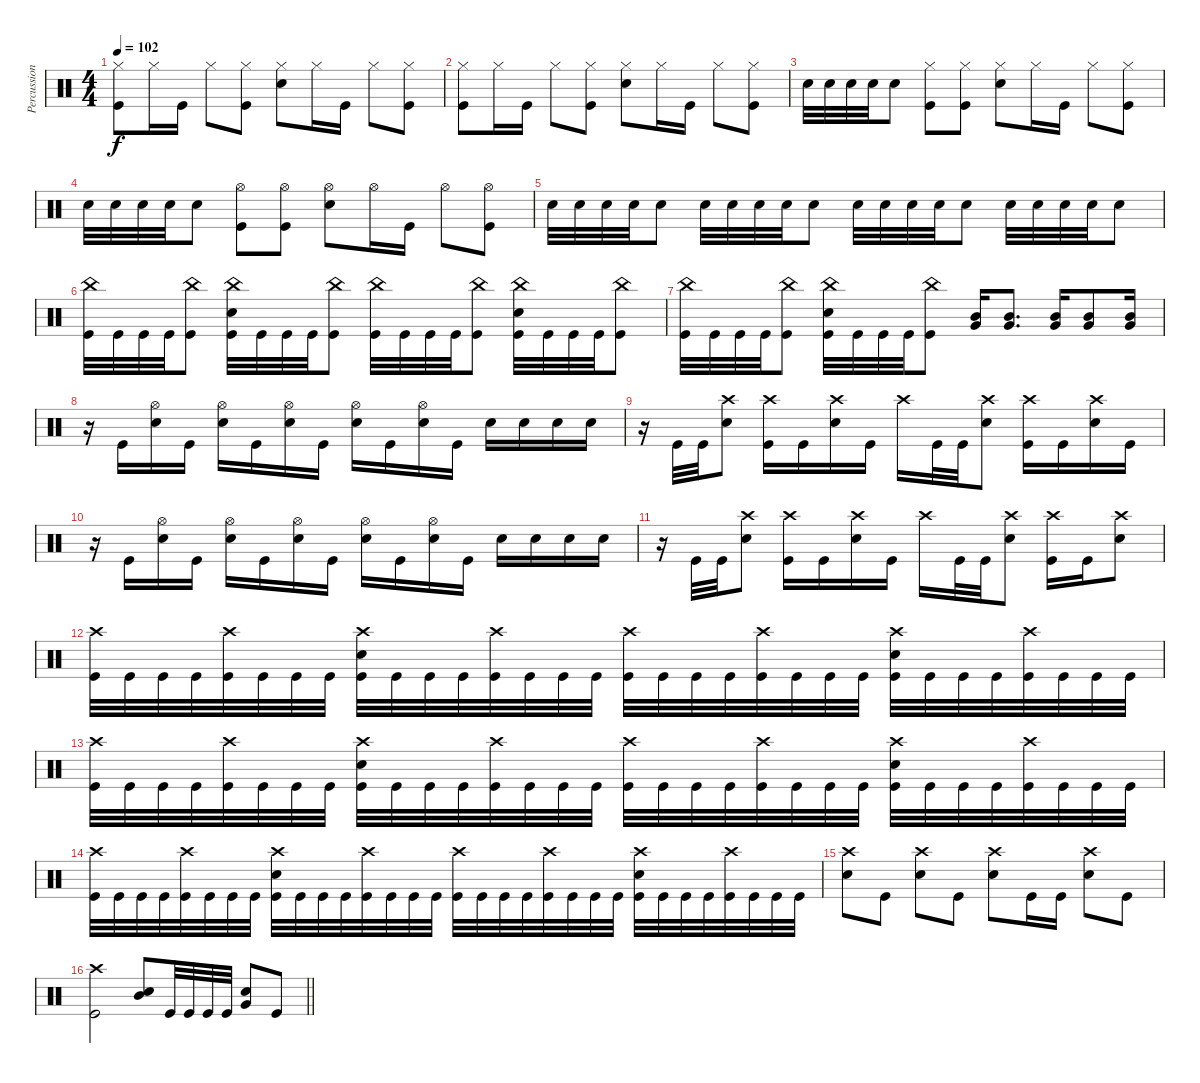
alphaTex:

\track ("Percussion" "Percussion") {solo instrument percussion}
\staff {score}
\articulation defaults
\ts (4 4)
\tempo 102
\clef neutral
\ks c
("Kick (hit)" "Hi-Hat (closed)").8{dy f} "Hi-Hat (closed)".16 "Kick (hit)".16 "Hi-Hat (closed)".8 ("Hi-Hat (closed)" "Kick (hit)").8 ("Hi-Hat (closed)" "Snare (hit) 2").8 "Hi-Hat (closed)".16 "Kick (hit)".16 "Hi-Hat (closed)".8 ("Kick (hit)" "Hi-Hat (closed)").8 |
("Kick (hit)" "Hi-Hat (closed)").8 "Hi-Hat (closed)".16 "Kick (hit)".16 "Hi-Hat (closed)".8 ("Hi-Hat (closed)" "Kick (hit)").8 ("Hi-Hat (closed)" "Snare (hit) 2").8 "Hi-Hat (closed)".16 "Kick (hit)".16 "Hi-Hat (closed)".8 ("Kick (hit)" "Hi-Hat (closed)").8 |
"Snare (hit) 2".32 "Snare (hit) 2".32 "Snare (hit) 2".32 "Snare (hit) 2".32 "Snare (hit) 2".8 ("Hi-Hat (closed)" "Kick (hit)").8 ("Hi-Hat (closed)" "Kick (hit)").8 ("Hi-Hat (closed)" "Snare (hit) 2").8 "Hi-Hat (closed)".16 "Kick (hit)".16 "Hi-Hat (closed)".8 ("Kick (hit)" "Hi-Hat (closed)").8 |
"Snare (hit) 2".32 "Snare (hit) 2".32 "Snare (hit) 2".32 "Snare (hit) 2".32 "Snare (hit) 2".8 ("Hi-Hat (open)" "Kick (hit)").8 ("Hi-Hat (open)" "Kick (hit)").8 ("Hi-Hat (open)" "Snare (hit) 2").8 "Hi-Hat (open)".16 "Kick (hit)".16 "Hi-Hat (open)".8 ("Kick (hit)" "Hi-Hat (open)").8 |
"Snare (hit) 2".32 "Snare (hit) 2".32 "Snare (hit) 2".32 "Snare (hit) 2".32 "Snare (hit) 2".8 "Snare (hit) 2".32 "Snare (hit) 2".32 "Snare (hit) 2".32 "Snare (hit) 2".32 "Snare (hit) 2".8 "Snare (hit) 2".32 "Snare (hit) 2".32 "Snare (hit) 2".32 "Snare (hit) 2".32 "Snare (hit) 2".8 "Snare (hit) 2".32 "Snare (hit) 2".32 "Snare (hit) 2".32 "Snare (hit) 2".32 "Snare (hit) 2".8 |
("Kick (hit)" "China (hit)").32 "Kick (hit)".32 "Kick (hit)".32 "Kick (hit)".32 ("Kick (hit)" "China (hit)").8 ("Kick (hit)" "China (hit)" "Snare (hit) 2").32 "Kick (hit)".32 "Kick (hit)".32 "Kick (hit)".32 ("Kick (hit)" "China (hit)").8 ("Kick (hit)" "China (hit)").32 "Kick (hit)".32 "Kick (hit)".32 "Kick (hit)".32 ("Kick (hit)" "China (hit)").8 ("Kick (hit)" "China (hit)" "Snare (hit) 2").32 "Kick (hit)".32 "Kick (hit)".32 "Kick (hit)".32 ("Kick (hit)" "China (hit)").8 |
("Kick (hit)" "China (hit)").32 "Kick (hit)".32 "Kick (hit)".32 "Kick (hit)".32 ("Kick (hit)" "China (hit)").8 ("Kick (hit)" "China (hit)" "Snare (hit) 2").32 "Kick (hit)".32 "Kick (hit)".32 "Kick (hit)".32 ("Kick (hit)" "China (hit)").8 ("Mid Tom (hit)" "Very Low Tom (hit)").16 ("Mid Tom (hit)" "Very Low Tom (hit)").8{d} ("Mid Tom (hit)" "Very Low Tom (hit)").16 ("Mid Tom (hit)" "Very Low Tom (hit)").8 ("Mid Tom (hit)" "Very Low Tom (hit)").16 |
r.16 "Kick (hit)".16 ("Snare (hit) 2" "Hi-Hat (open)").16 "Kick (hit)".16 ("Snare (hit) 2" "Hi-Hat (open)").16 "Kick (hit)".16 ("Snare (hit) 2" "Hi-Hat (open)").16 "Kick (hit)".16 ("Snare (hit) 2" "Hi-Hat (open)").16 "Kick (hit)".16 ("Snare (hit) 2" "Hi-Hat (open)").16 "Kick (hit)".16 "Snare (hit) 2".16 "Snare (hit) 2".16 "Snare (hit) 2".16 "Snare (hit) 2".16 |
r.16 "Kick (hit)".32 "Kick (hit)".32 ("Snare (hit) 2" "Crash high (hit)").8 ("Kick (hit)" "Crash high (hit)").16 "Kick (hit)".16 ("Snare (hit) 2" "Crash high (hit)").16 "Kick (hit)".16 "Crash high (hit)".16 "Kick (hit)".32 "Kick (hit)".32 ("Snare (hit) 2" "Crash high (hit)").8 ("Kick (hit)" "Crash high (hit)").16 "Kick (hit)".16 ("Snare (hit) 2" "Crash high (hit)").16 "Kick (hit)".16 |
r.16 "Kick (hit)".16 ("Snare (hit) 2" "Hi-Hat (open)").16 "Kick (hit)".16 ("Snare (hit) 2" "Hi-Hat (open)").16 "Kick (hit)".16 ("Snare (hit) 2" "Hi-Hat (open)").16 "Kick (hit)".16 ("Snare (hit) 2" "Hi-Hat (open)").16 "Kick (hit)".16 ("Snare (hit) 2" "Hi-Hat (open)").16 "Kick (hit)".16 "Snare (hit) 2".16 "Snare (hit) 2".16 "Snare (hit) 2".16 "Snare (hit) 2".16 |
r.16 "Kick (hit)".32 "Kick (hit)".32 ("Snare (hit) 2" "Crash high (hit)").8 ("Kick (hit)" "Crash high (hit)").16 "Kick (hit)".16 ("Snare (hit) 2" "Crash high (hit)").16 "Kick (hit)".16 "Crash high (hit)".16 "Kick (hit)".32 "Kick (hit)".32 ("Snare (hit) 2" "Crash high (hit)").8 ("Kick (hit)" "Crash high (hit)").16 "Kick (hit)".16 ("Snare (hit) 2" "Crash high (hit)").8 |
("Kick (hit)" "Crash high (hit)").32 "Kick (hit)".32 "Kick (hit)".32 "Kick (hit)".32 ("Kick (hit)" "Crash high (hit)").32 "Kick (hit)".32 "Kick (hit)".32 "Kick (hit)".32 ("Kick (hit)" "Crash high (hit)" "Snare (hit) 2").32 "Kick (hit)".32 "Kick (hit)".32 "Kick (hit)".32 ("Kick (hit)" "Crash high (hit)").32 "Kick (hit)".32 "Kick (hit)".32 "Kick (hit)".32 ("Kick (hit)" "Crash high (hit)").32 "Kick (hit)".32 "Kick (hit)".32 "Kick (hit)".32 ("Kick (hit)" "Crash high (hit)").32 "Kick (hit)".32 "Kick (hit)".32 "Kick (hit)".32 ("Kick (hit)" "Crash high (hit)" "Snare (hit) 2").32 "Kick (hit)".32 "Kick (hit)".32 "Kick (hit)".32 ("Kick (hit)" "Crash high (hit)").32 "Kick (hit)".32 "Kick (hit)".32 "Kick (hit)".32 |
("Kick (hit)" "Crash high (hit)").32 "Kick (hit)".32 "Kick (hit)".32 "Kick (hit)".32 ("Kick (hit)" "Crash high (hit)").32 "Kick (hit)".32 "Kick (hit)".32 "Kick (hit)".32 ("Kick (hit)" "Crash high (hit)" "Snare (hit) 2").32 "Kick (hit)".32 "Kick (hit)".32 "Kick (hit)".32 ("Kick (hit)" "Crash high (hit)").32 "Kick (hit)".32 "Kick (hit)".32 "Kick (hit)".32 ("Kick (hit)" "Crash high (hit)").32 "Kick (hit)".32 "Kick (hit)".32 "Kick (hit)".32 ("Kick (hit)" "Crash high (hit)").32 "Kick (hit)".32 "Kick (hit)".32 "Kick (hit)".32 ("Kick (hit)" "Crash high (hit)" "Snare (hit) 2").32 "Kick (hit)".32 "Kick (hit)".32 "Kick (hit)".32 ("Kick (hit)" "Crash high (hit)").32 "Kick (hit)".32 "Kick (hit)".32 "Kick (hit)".32 |
("Kick (hit)" "Crash high (hit)").32 "Kick (hit)".32 "Kick (hit)".32 "Kick (hit)".32 ("Kick (hit)" "Crash high (hit)").32 "Kick (hit)".32 "Kick (hit)".32 "Kick (hit)".32 ("Kick (hit)" "Crash high (hit)" "Snare (hit) 2").32 "Kick (hit)".32 "Kick (hit)".32 "Kick (hit)".32 ("Kick (hit)" "Crash high (hit)").32 "Kick (hit)".32 "Kick (hit)".32 "Kick (hit)".32 ("Kick (hit)" "Crash high (hit)").32 "Kick (hit)".32 "Kick (hit)".32 "Kick (hit)".32 ("Kick (hit)" "Crash high (hit)").32 "Kick (hit)".32 "Kick (hit)".32 "Kick (hit)".32 ("Kick (hit)" "Crash high (hit)" "Snare (hit) 2").32 "Kick (hit)".32 "Kick (hit)".32 "Kick (hit)".32 ("Kick (hit)" "Crash high (hit)").32 "Kick (hit)".32 "Kick (hit)".32 "Kick (hit)".32 |
("Snare (hit) 2" "Crash high (hit)").8 "Kick (hit)".8 ("Snare (hit) 2" "Crash high (hit)").8 "Kick (hit)".8 ("Snare (hit) 2" "Crash high (hit)").8 "Kick (hit)".16 "Kick (hit)".16 ("Snare (hit) 2" "Crash high (hit)").8 "Kick (hit)".8 |
\barLineRight lightlight
("Kick (hit)" "Crash high (hit)").2 ("Mid Tom (hit)" "Snare (hit) 2").8 "Kick (hit)".32 "Kick (hit)".32 "Kick (hit)".32 "Kick (hit)".32 ("Very Low Tom (hit)" "Snare (hit) 2").8 "Kick (hit)".8
